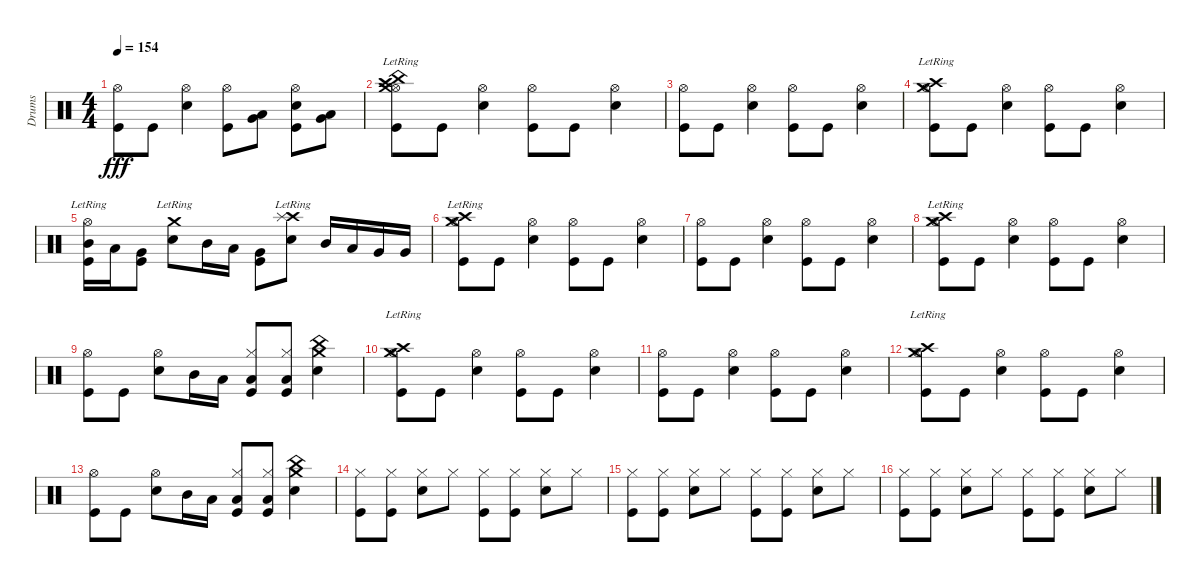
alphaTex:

\track ("Drums" "Drums") {instrument percussion}
\staff {score}
\articulation defaults
\ts (4 4)
\tempo 154
\clef neutral
\ks c
("Hi-Hat (open)" "Kick (hit)").8{dy fff} "Kick (hit)".8 ("Hi-Hat (open)" "Snare (hit) 2").4 ("Hi-Hat (open)" "Kick (hit)").8 ("Very Low Tom (hit)" "Low Tom (hit)").8 ("Hi-Hat (open)" "Snare (hit) 2" "Kick (hit)").8 ("Very Low Tom (hit)" "Low Tom (hit)").8 |
("Crash high (hit)"{lr} "Hi-Hat (open)" "Crash medium (hit)"{lr} "Kick (hit)" "China (hit)").8 "Kick (hit)".8 ("Hi-Hat (open)" "Snare (hit) 2").4 ("Hi-Hat (open)" "Kick (hit)").8 "Kick (hit)".8 ("Hi-Hat (open)" "Snare (hit) 2").4 |
("Hi-Hat (open)" "Kick (hit)").8 "Kick (hit)".8 ("Hi-Hat (open)" "Snare (hit) 2").4 ("Hi-Hat (open)" "Kick (hit)").8 "Kick (hit)".8 ("Hi-Hat (open)" "Snare (hit) 2").4 |
("Crash high (hit)"{lr} "Hi-Hat (open)" "Crash medium (hit)"{lr} "Kick (hit)").8 "Kick (hit)".8 ("Hi-Hat (open)" "Snare (hit) 2").4 ("Hi-Hat (open)" "Kick (hit)").8 "Kick (hit)".8 ("Hi-Hat (open)" "Snare (hit) 2").4 |
("Hi-Hat (open)"{lr} "Mid Tom (hit)" "Kick (hit)").16 "Low Tom (hit)".16 ("Very Low Tom (hit)" "Kick (hit)").8 ("Crash medium (hit)"{lr} "Snare (hit) 2").8 "Mid Tom (hit)".16 "Low Tom (hit)".16 ("Very Low Tom (hit)" "Kick (hit)").8 ("Crash high (hit)"{lr} "Splash (hit)"{lr} "Snare (hit) 2").8 "Mid Tom (hit)".16 "Low Tom (hit)".16 "Very Low Tom (hit)".16 "Very Low Tom (hit)".16 |
("Crash high (hit)"{lr} "Hi-Hat (open)" "Crash medium (hit)"{lr} "Kick (hit)").8 "Kick (hit)".8 ("Hi-Hat (open)" "Snare (hit) 2").4 ("Hi-Hat (open)" "Kick (hit)").8 "Kick (hit)".8 ("Hi-Hat (open)" "Snare (hit) 2").4 |
("Hi-Hat (open)" "Kick (hit)").8 "Kick (hit)".8 ("Hi-Hat (open)" "Snare (hit) 2").4 ("Hi-Hat (open)" "Kick (hit)").8 "Kick (hit)".8 ("Hi-Hat (open)" "Snare (hit) 2").4 |
("Crash high (hit)"{lr} "Hi-Hat (open)" "Crash medium (hit)"{lr} "Kick (hit)").8 "Kick (hit)".8 ("Hi-Hat (open)" "Snare (hit) 2").4 ("Hi-Hat (open)" "Kick (hit)").8 "Kick (hit)".8 ("Hi-Hat (open)" "Snare (hit) 2").4 |
("Hi-Hat (open)" "Kick (hit)").8 "Kick (hit)".8 ("Hi-Hat (open)" "Snare (hit) 2").8 "Mid Tom (hit)".16 "Low Tom (hit)".16 ("Hi-Hat (closed)" "Low Floor Tom (hit)" "Kick (hit)").8 ("Hi-Hat (closed)" "Low Floor Tom (hit)" "Kick (hit)").8 ("Crash medium (hit)" "China (hit)" "Snare (hit) 2").4 |
("Crash high (hit)"{lr} "Hi-Hat (open)" "Crash medium (hit)"{lr} "Kick (hit)").8 "Kick (hit)".8 ("Hi-Hat (open)" "Snare (hit) 2").4 ("Hi-Hat (open)" "Kick (hit)").8 "Kick (hit)".8 ("Hi-Hat (open)" "Snare (hit) 2").4 |
("Hi-Hat (open)" "Kick (hit)").8 "Kick (hit)".8 ("Hi-Hat (open)" "Snare (hit) 2").4 ("Hi-Hat (open)" "Kick (hit)").8 "Kick (hit)".8 ("Hi-Hat (open)" "Snare (hit) 2").4 |
("Crash high (hit)"{lr} "Hi-Hat (open)" "Crash medium (hit)"{lr} "Kick (hit)").8 "Kick (hit)".8 ("Hi-Hat (open)" "Snare (hit) 2").4 ("Hi-Hat (open)" "Kick (hit)").8 "Kick (hit)".8 ("Hi-Hat (open)" "Snare (hit) 2").4 |
("Hi-Hat (open)" "Kick (hit)").8 "Kick (hit)".8 ("Hi-Hat (open)" "Snare (hit) 2").8 "Mid Tom (hit)".16 "Low Tom (hit)".16 ("Hi-Hat (closed)" "Low Floor Tom (hit)" "Kick (hit)").8 ("Hi-Hat (closed)" "Low Floor Tom (hit)" "Kick (hit)").8 ("Crash medium (hit)" "China (hit)" "Snare (hit) 2").4 |
("Hi-Hat (closed)" "Kick (hit)").8 ("Hi-Hat (closed)" "Kick (hit)").8 ("Hi-Hat (closed)" "Snare (hit) 2").8 "Hi-Hat (closed)".8 ("Hi-Hat (closed)" "Kick (hit)").8 ("Hi-Hat (closed)" "Kick (hit)").8 ("Hi-Hat (closed)" "Snare (hit) 2").8 "Hi-Hat (closed)".8 |
("Hi-Hat (closed)" "Kick (hit)").8 ("Hi-Hat (closed)" "Kick (hit)").8 ("Hi-Hat (closed)" "Snare (hit) 2").8 "Hi-Hat (closed)".8 ("Hi-Hat (closed)" "Kick (hit)").8 ("Hi-Hat (closed)" "Kick (hit)").8 ("Hi-Hat (closed)" "Snare (hit) 2").8 "Hi-Hat (closed)".8 |
("Hi-Hat (closed)" "Kick (hit)").8 ("Hi-Hat (closed)" "Kick (hit)").8 ("Hi-Hat (closed)" "Snare (hit) 2").8 "Hi-Hat (closed)".8 ("Hi-Hat (closed)" "Kick (hit)").8 ("Hi-Hat (closed)" "Kick (hit)").8 ("Hi-Hat (closed)" "Snare (hit) 2").8 "Hi-Hat (closed)".8
